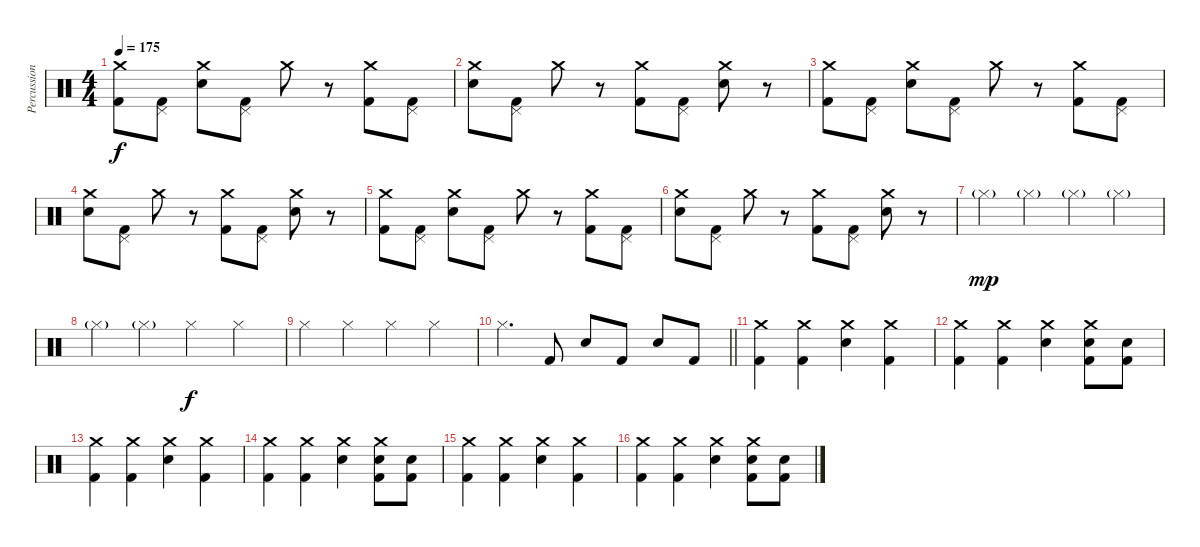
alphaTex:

\track ("Percussions" "Percussion") {instrument percussion}
\staff {score}
\articulation defaults
\ts (4 4)
\tempo 175
\clef neutral
\ks c
("Crash medium (hit)" "Kick (hit) 2").8{dy f} ("Pedal Hi-Hat (hit)" "Kick (hit) 2").8 ("Crash medium (hit)" "Snare (hit) 2").8 ("Pedal Hi-Hat (hit)" "Kick (hit) 2").8 "Crash medium (hit)".8 r.8 ("Crash medium (hit)" "Kick (hit) 2").8 ("Pedal Hi-Hat (hit)" "Kick (hit) 2").8 |
("Crash medium (hit)" "Snare (hit) 2").8 ("Pedal Hi-Hat (hit)" "Kick (hit) 2").8 "Crash medium (hit)".8 r.8 ("Crash medium (hit)" "Kick (hit) 2").8 ("Pedal Hi-Hat (hit)" "Kick (hit) 2").8 ("Crash medium (hit)" "Snare (hit) 2").8 r.8 |
("Crash medium (hit)" "Kick (hit) 2").8 ("Pedal Hi-Hat (hit)" "Kick (hit) 2").8 ("Crash medium (hit)" "Snare (hit) 2").8 ("Pedal Hi-Hat (hit)" "Kick (hit) 2").8 "Crash medium (hit)".8 r.8 ("Crash medium (hit)" "Kick (hit) 2").8 ("Pedal Hi-Hat (hit)" "Kick (hit) 2").8 |
("Crash medium (hit)" "Snare (hit) 2").8 ("Pedal Hi-Hat (hit)" "Kick (hit) 2").8 "Crash medium (hit)".8 r.8 ("Crash medium (hit)" "Kick (hit) 2").8 ("Pedal Hi-Hat (hit)" "Kick (hit) 2").8 ("Crash medium (hit)" "Snare (hit) 2").8 r.8 |
("Crash medium (hit)" "Kick (hit) 2").8 ("Pedal Hi-Hat (hit)" "Kick (hit) 2").8 ("Crash medium (hit)" "Snare (hit) 2").8 ("Pedal Hi-Hat (hit)" "Kick (hit) 2").8 "Crash medium (hit)".8 r.8 ("Crash medium (hit)" "Kick (hit) 2").8 ("Pedal Hi-Hat (hit)" "Kick (hit) 2").8 |
("Crash medium (hit)" "Snare (hit) 2").8 ("Pedal Hi-Hat (hit)" "Kick (hit) 2").8 "Crash medium (hit)".8 r.8 ("Crash medium (hit)" "Kick (hit) 2").8 ("Pedal Hi-Hat (hit)" "Kick (hit) 2").8 ("Crash medium (hit)" "Snare (hit) 2").8 r.8 |
"Hi-Hat (closed)"{g}.4{dy mp} "Hi-Hat (closed)"{g}.4 "Hi-Hat (closed)"{g}.4 "Hi-Hat (closed)"{g}.4 |
"Hi-Hat (closed)"{g}.4 "Hi-Hat (closed)"{g}.4 "Hi-Hat (closed)".4{dy f} "Hi-Hat (closed)".4 |
"Hi-Hat (closed)".4 "Hi-Hat (closed)".4 "Hi-Hat (closed)".4 "Hi-Hat (closed)".4 |
\barLineRight lightlight "Hi-Hat (closed)".4{d} "Kick (hit) 2".8 "Snare (hit) 2".8 "Kick (hit) 2".8 "Snare (hit) 2".8 "Kick (hit) 2".8
|
("Crash medium (hit)" "Kick (hit) 2").4 ("Crash medium (hit)" "Kick (hit) 2").4 ("Crash medium (hit)" "Snare (hit) 2").4 ("Crash medium (hit)" "Kick (hit) 2").4 |
("Crash medium (hit)" "Kick (hit) 2").4 ("Crash medium (hit)" "Kick (hit) 2").4 ("Crash medium (hit)" "Snare (hit) 2").4 ("Crash medium (hit)" "Snare (hit) 2" "Kick (hit) 2").8 ("Snare (hit) 2" "Kick (hit) 2").8 |
("Crash medium (hit)" "Kick (hit) 2").4 ("Crash medium (hit)" "Kick (hit) 2").4 ("Crash medium (hit)" "Snare (hit) 2").4 ("Crash medium (hit)" "Kick (hit) 2").4 |
("Crash medium (hit)" "Kick (hit) 2").4 ("Crash medium (hit)" "Kick (hit) 2").4 ("Crash medium (hit)" "Snare (hit) 2").4 ("Crash medium (hit)" "Snare (hit) 2" "Kick (hit) 2").8 ("Snare (hit) 2" "Kick (hit) 2").8 |
("Crash medium (hit)" "Kick (hit) 2").4 ("Crash medium (hit)" "Kick (hit) 2").4 ("Crash medium (hit)" "Snare (hit) 2").4 ("Crash medium (hit)" "Kick (hit) 2").4 |
("Crash medium (hit)" "Kick (hit) 2").4 ("Crash medium (hit)" "Kick (hit) 2").4 ("Crash medium (hit)" "Snare (hit) 2").4 ("Crash medium (hit)" "Snare (hit) 2" "Kick (hit) 2").8 ("Snare (hit) 2" "Kick (hit) 2").8
